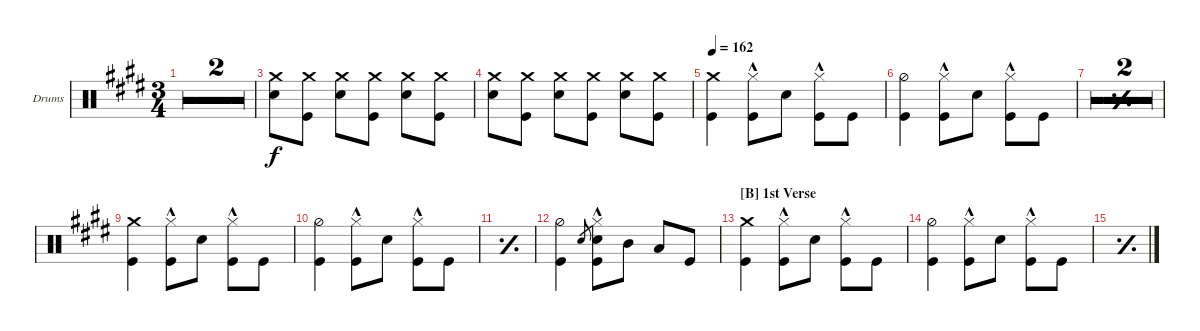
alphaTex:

\defaultSystemsLayout 4
\bracketExtendMode groupsimilarinstruments
\firstSystemTrackNameOrientation horizontal
\otherSystemsTrackNameOrientation horizontal
\track ("Dave Grohl (Drums)" "Drums") {multiBarRest instrument percussion}
\staff {score}
\articulation defaults
\ts (3 4)
\tempo 165
\clef neutral
\simile firstofdouble
\ks e
|
\simile secondofdouble
|
("Snare (hit) 2" "Crash medium (hit)").8 ("Kick (hit)" "Crash medium (hit)").8 ("Snare (hit) 2" "Crash medium (hit)").8 ("Kick (hit)" "Crash medium (hit)").8 ("Snare (hit) 2" "Crash medium (hit)").8 ("Kick (hit)" "Crash medium (hit)").8 |
("Snare (hit) 2" "Crash medium (hit)").8 ("Kick (hit)" "Crash medium (hit)").8 ("Snare (hit) 2" "Crash medium (hit)").8 ("Kick (hit)" "Crash medium (hit)").8 ("Snare (hit) 2" "Crash medium (hit)").8 ("Kick (hit)" "Crash medium (hit)").8 |
\tempo 162
("Kick (hit)" "Crash medium (hit)").4{dy f} ("Kick (hit)" "Hi-Hat (closed)"{hac}).8 "Snare (hit) 2".8 ("Kick (hit)" "Hi-Hat (closed)"{hac}).8 "Kick (hit)".8 |
("Kick (hit)" "Hi-Hat (half)").4 ("Kick (hit)" "Hi-Hat (closed)"{hac}).8 "Snare (hit) 2".8 ("Kick (hit)" "Hi-Hat (closed)"{hac}).8 "Kick (hit)".8 |
\simile simple
|
|
\simile none
("Kick (hit)" "Crash medium (hit)").4 ("Kick (hit)" "Hi-Hat (closed)"{hac}).8 "Snare (hit) 2".8 ("Kick (hit)" "Hi-Hat (closed)"{hac}).8 "Kick (hit)".8 |
("Kick (hit)" "Hi-Hat (half)").4 ("Kick (hit)" "Hi-Hat (closed)"{hac}).8 "Snare (hit) 2".8 ("Kick (hit)" "Hi-Hat (closed)"{hac}).8 "Kick (hit)".8 |
\simile simple
|
\simile none
("Kick (hit)" "Hi-Hat (half)").4 "Snare (hit) 2".8{gr} ("Kick (hit)" "Hi-Hat (closed)"{hac} "Snare (hit) 2").8 "Mid Tom (hit)".8 "Low Tom (hit)".8 "Kick (hit)".8 |
\section ("B" "1st Verse")
("Kick (hit)" "Crash medium (hit)").4 ("Kick (hit)" "Hi-Hat (closed)"{hac}).8 "Snare (hit) 2".8 ("Kick (hit)" "Hi-Hat (closed)"{hac}).8 "Kick (hit)".8 |
("Kick (hit)" "Hi-Hat (half)").4 ("Kick (hit)" "Hi-Hat (closed)"{hac}).8 "Snare (hit) 2".8 ("Kick (hit)" "Hi-Hat (closed)"{hac}).8 "Kick (hit)".8 |
\simile simple
